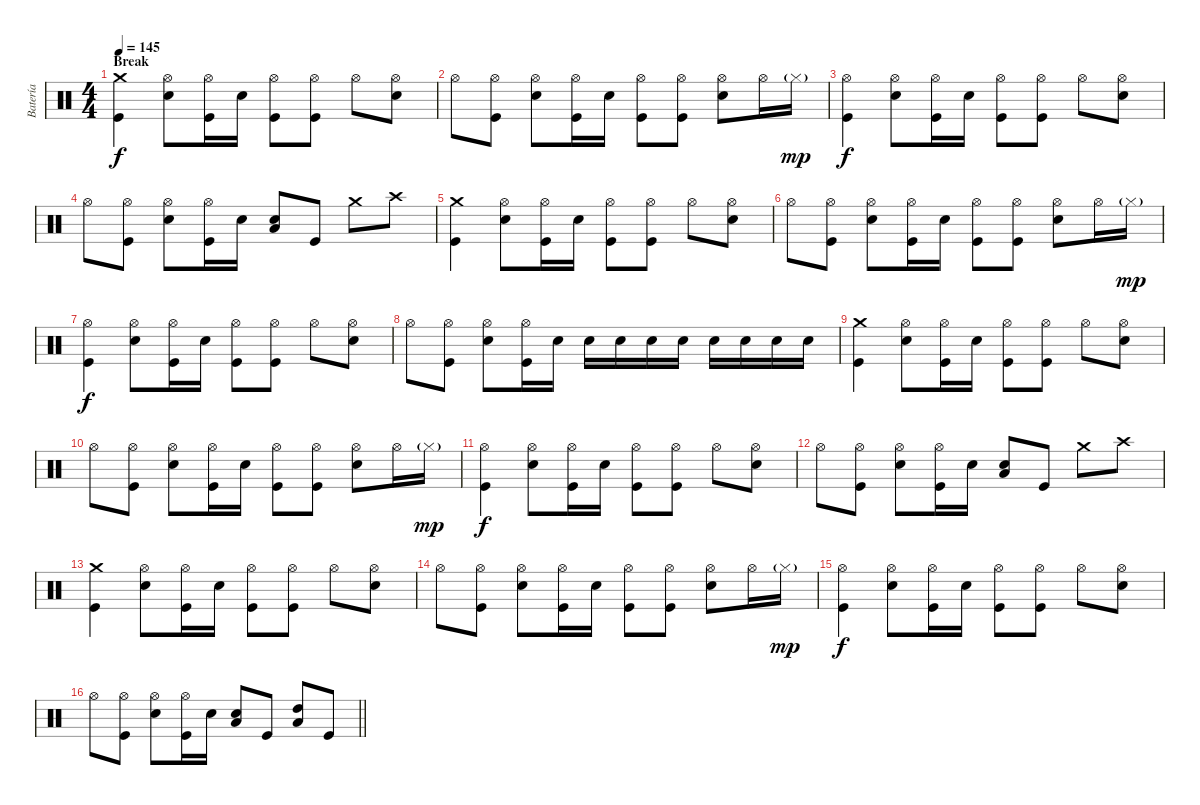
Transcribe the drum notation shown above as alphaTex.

\track ("Batería" "Batería") {instrument percussion}
\staff {score}
\articulation defaults
\ts (4 4)
\section ("" "Break")
\tempo 145
\clef neutral
\ks c
("Kick (hit)" "Crash medium (hit)").4{dy f} ("Electric Snare (hit)" "Hi-Hat (open)").8 ("Kick (hit)" "Hi-Hat (open)").16 "Electric Snare (hit)".16 ("Kick (hit)" "Hi-Hat (open)").8 ("Kick (hit)" "Hi-Hat (open)").8 "Hi-Hat (open)".8 ("Electric Snare (hit)" "Hi-Hat (open)").8 |
"Hi-Hat (open)".8 ("Hi-Hat (open)" "Kick (hit)").8 ("Hi-Hat (open)" "Electric Snare (hit)").8 ("Hi-Hat (open)" "Kick (hit)").16 "Electric Snare (hit)".16 ("Hi-Hat (open)" "Kick (hit)").8 ("Hi-Hat (open)" "Kick (hit)").8 ("Hi-Hat (open)" "Electric Snare (hit)").8 "Hi-Hat (open)".16 "Hi-Hat (closed)"{g}.16{dy mp} |
("Kick (hit)" "Hi-Hat (open)").4{dy f} ("Electric Snare (hit)" "Hi-Hat (open)").8 ("Kick (hit)" "Hi-Hat (open)").16 "Electric Snare (hit)".16 ("Kick (hit)" "Hi-Hat (open)").8 ("Kick (hit)" "Hi-Hat (open)").8 "Hi-Hat (open)".8 ("Electric Snare (hit)" "Hi-Hat (open)").8 |
"Hi-Hat (open)".8 ("Hi-Hat (open)" "Kick (hit)").8 ("Hi-Hat (open)" "Electric Snare (hit)").8 ("Hi-Hat (open)" "Kick (hit)").16 "Electric Snare (hit)".16 ("Electric Snare (hit)" "Low Floor Tom (hit)").8 "Kick (hit)".8 "Crash medium (hit)".8 "Crash high (hit)".8 |
("Kick (hit)" "Crash medium (hit)").4 ("Electric Snare (hit)" "Hi-Hat (open)").8 ("Kick (hit)" "Hi-Hat (open)").16 "Electric Snare (hit)".16 ("Kick (hit)" "Hi-Hat (open)").8 ("Kick (hit)" "Hi-Hat (open)").8 "Hi-Hat (open)".8 ("Electric Snare (hit)" "Hi-Hat (open)").8 |
"Hi-Hat (open)".8 ("Hi-Hat (open)" "Kick (hit)").8 ("Hi-Hat (open)" "Electric Snare (hit)").8 ("Hi-Hat (open)" "Kick (hit)").16 "Electric Snare (hit)".16 ("Hi-Hat (open)" "Kick (hit)").8 ("Hi-Hat (open)" "Kick (hit)").8 ("Hi-Hat (open)" "Electric Snare (hit)").8 "Hi-Hat (open)".16 "Hi-Hat (closed)"{g}.16{dy mp} |
("Kick (hit)" "Hi-Hat (open)").4{dy f} ("Electric Snare (hit)" "Hi-Hat (open)").8 ("Kick (hit)" "Hi-Hat (open)").16 "Electric Snare (hit)".16 ("Kick (hit)" "Hi-Hat (open)").8 ("Kick (hit)" "Hi-Hat (open)").8 "Hi-Hat (open)".8 ("Electric Snare (hit)" "Hi-Hat (open)").8 |
"Hi-Hat (open)".8 ("Hi-Hat (open)" "Kick (hit)").8 ("Hi-Hat (open)" "Electric Snare (hit)").8 ("Hi-Hat (open)" "Kick (hit)").16 "Electric Snare (hit)".16 "Electric Snare (hit)".16 "Electric Snare (hit)".16 "Electric Snare (hit)".16 "Electric Snare (hit)".16 "Electric Snare (hit)".16 "Electric Snare (hit)".16 "Electric Snare (hit)".16 "Electric Snare (hit)".16 |
("Kick (hit)" "Crash medium (hit)").4 ("Electric Snare (hit)" "Hi-Hat (open)").8 ("Kick (hit)" "Hi-Hat (open)").16 "Electric Snare (hit)".16 ("Kick (hit)" "Hi-Hat (open)").8 ("Kick (hit)" "Hi-Hat (open)").8 "Hi-Hat (open)".8 ("Electric Snare (hit)" "Hi-Hat (open)").8 |
"Hi-Hat (open)".8 ("Hi-Hat (open)" "Kick (hit)").8 ("Hi-Hat (open)" "Electric Snare (hit)").8 ("Hi-Hat (open)" "Kick (hit)").16 "Electric Snare (hit)".16 ("Hi-Hat (open)" "Kick (hit)").8 ("Hi-Hat (open)" "Kick (hit)").8 ("Hi-Hat (open)" "Electric Snare (hit)").8 "Hi-Hat (open)".16 "Hi-Hat (closed)"{g}.16{dy mp} |
("Kick (hit)" "Hi-Hat (open)").4{dy f} ("Electric Snare (hit)" "Hi-Hat (open)").8 ("Kick (hit)" "Hi-Hat (open)").16 "Electric Snare (hit)".16 ("Kick (hit)" "Hi-Hat (open)").8 ("Kick (hit)" "Hi-Hat (open)").8 "Hi-Hat (open)".8 ("Electric Snare (hit)" "Hi-Hat (open)").8 |
"Hi-Hat (open)".8 ("Hi-Hat (open)" "Kick (hit)").8 ("Hi-Hat (open)" "Electric Snare (hit)").8 ("Hi-Hat (open)" "Kick (hit)").16 "Electric Snare (hit)".16 ("Electric Snare (hit)" "Low Floor Tom (hit)").8 "Kick (hit)".8 "Crash medium (hit)".8 "Crash high (hit)".8 |
("Kick (hit)" "Crash medium (hit)").4 ("Electric Snare (hit)" "Hi-Hat (open)").8 ("Kick (hit)" "Hi-Hat (open)").16 "Electric Snare (hit)".16 ("Kick (hit)" "Hi-Hat (open)").8 ("Kick (hit)" "Hi-Hat (open)").8 "Hi-Hat (open)".8 ("Electric Snare (hit)" "Hi-Hat (open)").8 |
"Hi-Hat (open)".8 ("Hi-Hat (open)" "Kick (hit)").8 ("Hi-Hat (open)" "Electric Snare (hit)").8 ("Hi-Hat (open)" "Kick (hit)").16 "Electric Snare (hit)".16 ("Hi-Hat (open)" "Kick (hit)").8 ("Hi-Hat (open)" "Kick (hit)").8 ("Hi-Hat (open)" "Electric Snare (hit)").8 "Hi-Hat (open)".16 "Hi-Hat (closed)"{g}.16{dy mp} |
("Kick (hit)" "Hi-Hat (open)").4{dy f} ("Electric Snare (hit)" "Hi-Hat (open)").8 ("Kick (hit)" "Hi-Hat (open)").16 "Electric Snare (hit)".16 ("Kick (hit)" "Hi-Hat (open)").8 ("Kick (hit)" "Hi-Hat (open)").8 "Hi-Hat (open)".8 ("Electric Snare (hit)" "Hi-Hat (open)").8 |
\barLineRight lightlight "Hi-Hat (open)".8
("Hi-Hat (open)" "Kick (hit)").8 ("Hi-Hat (open)" "Electric Snare (hit)").8 ("Hi-Hat (open)" "Kick (hit)").16 "Electric Snare (hit)".16 ("Low Floor Tom (hit)" "Electric Snare (hit)").8 "Kick (hit)".8 ("Low Floor Tom (hit)" "High Tom (hit)").8 "Kick (hit)".8
